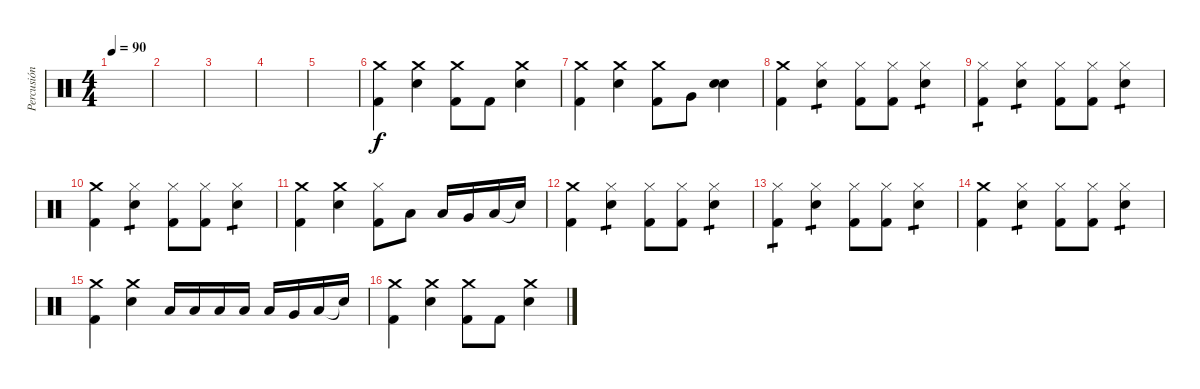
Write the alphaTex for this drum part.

\track ("Percusión" "Percusión") {instrument percussion}
\staff {score}
\articulation defaults
\ts (4 4)
\tempo 90
\clef neutral
\ks c
|
|
|
|
|
("Crash medium (hit)" "Kick (hit) 2").4 ("Crash medium (hit)" "Snare (hit) 2").4 ("Crash medium (hit)" "Kick (hit) 2").8 "Kick (hit) 2".8 ("Crash medium (hit)" "Snare (hit) 2").4 |
("Crash medium (hit)" "Kick (hit) 2").4 ("Crash medium (hit)" "Snare (hit) 2").4 ("Crash medium (hit)" "Kick (hit) 2").8 "Very Low Tom (hit)".8 ("Snare (hit) 2" "Snare (hit) 2").4 |
("Crash medium (hit)" "Kick (hit) 2").4 ("Hi-Hat (closed)" "Snare (hit) 2").4{tp 1} ("Hi-Hat (closed)" "Kick (hit) 2").8 ("Hi-Hat (closed)" "Kick (hit) 2").8 ("Hi-Hat (closed)" "Snare (hit) 2").4{tp 1} |
("Hi-Hat (closed)" "Kick (hit) 2").4{tp 1} ("Hi-Hat (closed)" "Snare (hit) 2").4{tp 1} ("Hi-Hat (closed)" "Kick (hit) 2").8 ("Hi-Hat (closed)" "Kick (hit) 2").8 ("Hi-Hat (closed)" "Snare (hit) 2").4{tp 1} |
("Crash medium (hit)" "Kick (hit) 2").4 ("Hi-Hat (closed)" "Snare (hit) 2").4{tp 1} ("Hi-Hat (closed)" "Kick (hit) 2").8 ("Hi-Hat (closed)" "Kick (hit) 2").8 ("Hi-Hat (closed)" "Snare (hit) 2").4{tp 1} |
("Crash medium (hit)" "Kick (hit) 2").4 ("Crash medium (hit)" "Snare (hit) 2").4 ("Hi-Hat (closed)" "Kick (hit) 2").8 "Low Tom (hit)".8 "Low Tom (hit)".16 "Very Low Tom (hit)".16 "Low Floor Tom (hit)".16 "Snare (hit)"{t}.16 |
("Crash medium (hit)" "Kick (hit) 2").4 ("Hi-Hat (closed)" "Snare (hit) 2").4{tp 1} ("Hi-Hat (closed)" "Kick (hit) 2").8 ("Hi-Hat (closed)" "Kick (hit) 2").8 ("Hi-Hat (closed)" "Snare (hit) 2").4{tp 1} |
("Hi-Hat (closed)" "Kick (hit) 2").4{tp 1} ("Hi-Hat (closed)" "Snare (hit) 2").4{tp 1} ("Hi-Hat (closed)" "Kick (hit) 2").8 ("Hi-Hat (closed)" "Kick (hit) 2").8 ("Hi-Hat (closed)" "Snare (hit) 2").4{tp 1} |
("Crash medium (hit)" "Kick (hit) 2").4 ("Hi-Hat (closed)" "Snare (hit) 2").4{tp 1} ("Hi-Hat (closed)" "Kick (hit) 2").8 ("Hi-Hat (closed)" "Kick (hit) 2").8 ("Hi-Hat (closed)" "Snare (hit) 2").4{tp 1} |
("Crash medium (hit)" "Kick (hit) 2").4 ("Crash medium (hit)" "Snare (hit) 2").4 "Low Tom (hit)".16 "Low Tom (hit)".16 "Low Floor Tom (hit)".16 "Low Floor Tom (hit)".16 "Low Tom (hit)".16 "Very Low Tom (hit)".16 "Low Floor Tom (hit)".16 "Snare (hit)"{t}.16 |
("Crash medium (hit)" "Kick (hit) 2").4 ("Crash medium (hit)" "Snare (hit) 2").4 ("Crash medium (hit)" "Kick (hit) 2").8 "Kick (hit) 2".8 ("Crash medium (hit)" "Snare (hit) 2").4
